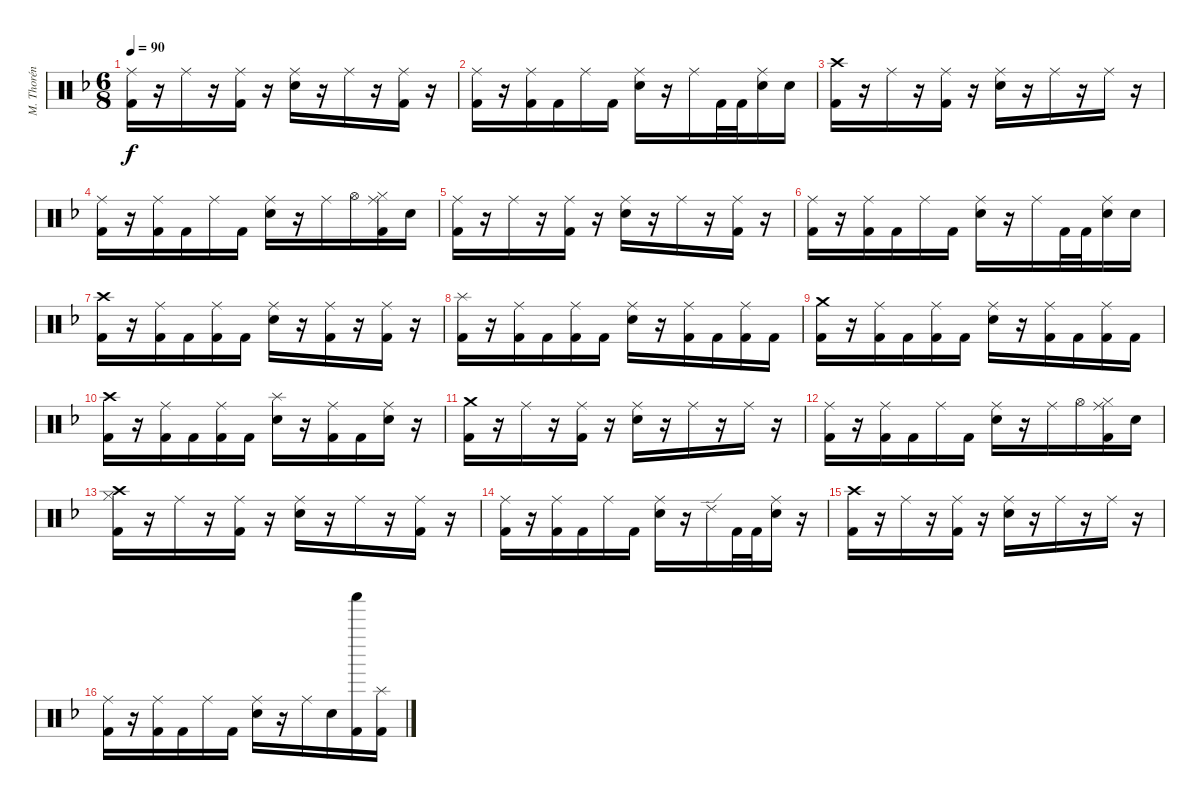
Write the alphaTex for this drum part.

\track ("M. Thorén (Drums)" "M. Thorén ") {instrument percussion}
\staff {score}
\articulation defaults
\ts (6 8)
\tempo 90
\clef neutral
\ks dminor
("Ride (middle)" "Kick (hit) 2").16{dy f} r.16 "Ride (middle)".16 r.16 ("Ride (middle)" "Kick (hit) 2").16 r.16 ("Ride (middle)" "Electric Snare (hit)").16 r.16 "Ride (middle)".16 r.16 ("Ride (middle)" "Kick (hit) 2").16 r.16 |
("Ride (middle)" "Kick (hit) 2").16 r.16 ("Ride (middle)" "Kick (hit) 2").16 "Kick (hit) 2".16 "Ride (middle)".16 "Kick (hit) 2".16 ("Ride (middle)" "Electric Snare (hit)").16 r.16 "Ride (middle)".16 "Kick (hit) 2".32 "Kick (hit) 2".32 ("Ride (middle)" "Electric Snare (hit)").16 "Electric Snare (hit)".16 |
("Crash high (hit)" "Kick (hit) 2").16 r.16 "Ride (middle)".16 r.16 ("Ride (middle)" "Kick (hit) 2").16 r.16 ("Ride (middle)" "Electric Snare (hit)").16 r.16 "Ride (middle)".16 r.16 "Ride (middle)".16 r.16 |
("Ride (middle)" "Kick (hit) 2").16 r.16 ("Ride (middle)" "Kick (hit) 2").16 "Kick (hit) 2".16 "Ride (middle)".16 "Kick (hit) 2".16 ("Ride (middle)" "Electric Snare (hit)").16 r.16 "Ride (middle)".16 "Hi-Hat (open)".16 ("Ride (middle)" "Hi-Hat (closed)" "Kick (hit) 2").16 "Electric Snare (hit)".16 |
("Ride (middle)" "Kick (hit) 2").16 r.16 "Ride (middle)".16 r.16 ("Ride (middle)" "Kick (hit) 2").16 r.16 ("Ride (middle)" "Electric Snare (hit)").16 r.16 "Ride (middle)".16 r.16 ("Ride (middle)" "Kick (hit) 2").16 r.16 |
("Ride (middle)" "Kick (hit) 2").16 r.16 ("Ride (middle)" "Kick (hit) 2").16 "Kick (hit) 2".16 "Ride (middle)".16 "Kick (hit) 2".16 ("Ride (middle)" "Electric Snare (hit)").16 r.16 "Ride (middle)".16 "Kick (hit) 2".32 "Kick (hit) 2".32 ("Ride (middle)" "Electric Snare (hit)").16 "Electric Snare (hit)".16 |
("Crash high (hit)" "Kick (hit) 2").16 r.16 ("Ride (middle)" "Kick (hit) 2").16 "Kick (hit) 2".16 ("Ride (middle)" "Kick (hit) 2").16 "Kick (hit) 2".16 ("Ride (middle)" "Electric Snare (hit)").16 r.16 ("Ride (middle)" "Kick (hit) 2").16 r.16 ("Ride (middle)" "Kick (hit) 2").16 r.16 |
("Splash (hit)" "Kick (hit) 2").16 r.16 ("Ride (middle)" "Kick (hit) 2").16 "Kick (hit) 2".16 ("Ride (middle)" "Kick (hit) 2").16 "Kick (hit) 2".16 ("Ride (middle)" "Electric Snare (hit)").16 r.16 ("Ride (middle)" "Kick (hit) 2").16 "Kick (hit) 2".16 ("Ride (middle)" "Kick (hit) 2").16 "Kick (hit) 2".16 |
("Crash medium (hit)" "Kick (hit) 2").16 r.16 ("Ride (middle)" "Kick (hit) 2").16 "Kick (hit) 2".16 ("Ride (middle)" "Kick (hit) 2").16 "Kick (hit) 2".16 ("Ride (middle)" "Electric Snare (hit)").16 r.16 ("Ride (middle)" "Kick (hit) 2").16 "Kick (hit) 2".16 ("Ride (middle)" "Kick (hit) 2").16 "Kick (hit) 2".16 |
("Crash high (hit)" "Kick (hit) 2").16 r.16 ("Ride (middle)" "Kick (hit) 2").16 "Kick (hit) 2".16 ("Ride (middle)" "Kick (hit) 2").16 "Kick (hit) 2".16 ("Splash (hit)" "Electric Snare (hit)").16 r.16 ("Ride (middle)" "Kick (hit) 2").16 "Kick (hit) 2".16 ("Ride (middle)" "Electric Snare (hit)").16 r.16 |
("Crash medium (hit)" "Kick (hit) 2").16 r.16 "Ride (middle)".16 r.16 ("Ride (middle)" "Kick (hit) 2").16 r.16 ("Ride (middle)" "Electric Snare (hit)").16 r.16 "Ride (middle)".16 r.16 "Ride (middle)".16 r.16 |
("Ride (middle)" "Kick (hit) 2").16 r.16 ("Ride (middle)" "Kick (hit) 2").16 "Kick (hit) 2".16 "Ride (middle)".16 "Kick (hit) 2".16 ("Ride (middle)" "Electric Snare (hit)").16 r.16 "Ride (middle)".16 "Hi-Hat (open)".16 ("Ride (middle)" "Hi-Hat (closed)" "Kick (hit) 2").16 "Electric Snare (hit)".16 |
("Crash high (hit)" "Hi-Hat (closed)" "Kick (hit) 2").16 r.16 "Ride (middle)".16 r.16 ("Ride (middle)" "Kick (hit) 2").16 r.16 ("Ride (middle)" "Electric Snare (hit)").16 r.16 "Ride (middle)".16 r.16 ("Ride (middle)" "Kick (hit) 2").16 r.16 |
("Ride (middle)" "Kick (hit) 2").16 r.16 ("Ride (middle)" "Kick (hit) 2").16 "Kick (hit) 2".16 "Ride (middle)".16 "Kick (hit) 2".16 ("Ride (middle)" "Electric Snare (hit)").16 r.16 "Ride (edge) 2".16 "Kick (hit) 2".32 "Kick (hit) 2".32 ("Ride (middle)" "Electric Snare (hit)").16 r.16 |
("Crash high (hit)" "Kick (hit) 2").16 r.16 "Ride (middle)".16 r.16 ("Ride (middle)" "Kick (hit) 2").16 r.16 ("Ride (middle)" "Electric Snare (hit)").16 r.16 "Ride (middle)".16 r.16 "Ride (middle)".16 r.16 |
("Ride (middle)" "Kick (hit) 2").16 r.16 ("Ride (middle)" "Kick (hit) 2").16 "Kick (hit) 2".16 "Ride (middle)".16 "Kick (hit) 2".16 ("Ride (middle)" "Electric Snare (hit)").16 r.16 "Ride (middle)".16 "Electric Snare (hit)".16 ("Shaker (hit)" "Kick (hit) 2").16 ("Splash (hit)" "Kick (hit) 2").16
